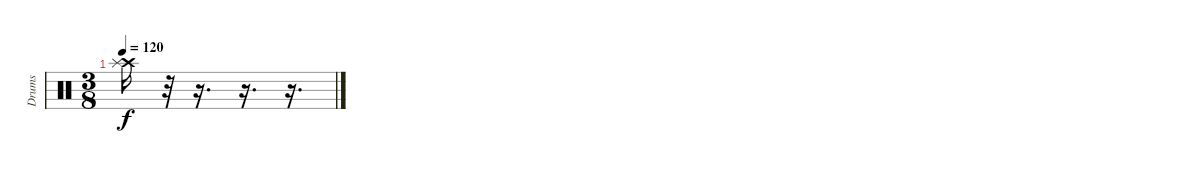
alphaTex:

\track ("Drums" "Drums") {instrument percussion}
\staff {score}
\articulation defaults
\ts (3 8)
\tempo 120
\clef neutral
\ks c
("Crash high (hit)" "Splash (hit)").16{dy f} r.32 r.16{d} r.16{d} r.16{d}
